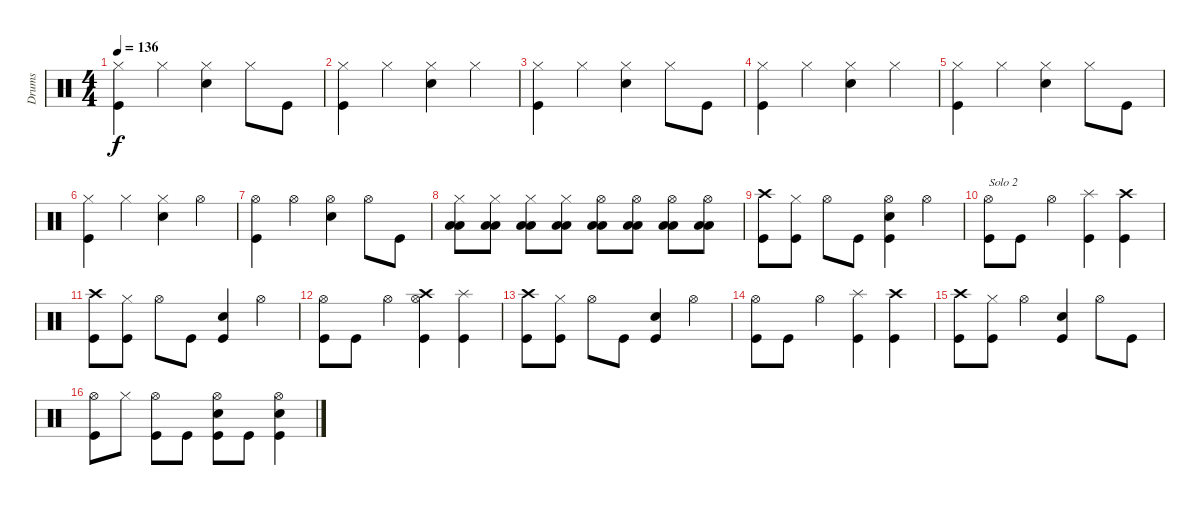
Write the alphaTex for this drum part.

\track ("Drums" "Drums") {instrument percussion}
\staff {score}
\articulation defaults
\ts (4 4)
\tempo 136
\clef neutral
\ks c
("Hi-Hat (closed)" "Kick (hit)").4{dy f} "Hi-Hat (closed)".4 ("Hi-Hat (closed)" "Snare (hit) 2").4 "Hi-Hat (closed)".8 "Kick (hit)".8 |
("Hi-Hat (closed)" "Kick (hit)").4 "Hi-Hat (closed)".4 ("Hi-Hat (closed)" "Snare (hit) 2").4 "Hi-Hat (closed)".4 |
("Hi-Hat (closed)" "Kick (hit)").4 "Hi-Hat (closed)".4 ("Hi-Hat (closed)" "Snare (hit) 2").4 "Hi-Hat (closed)".8 "Kick (hit)".8 |
("Hi-Hat (closed)" "Kick (hit)").4 "Hi-Hat (closed)".4 ("Hi-Hat (closed)" "Snare (hit) 2").4 "Hi-Hat (closed)".4 |
("Hi-Hat (closed)" "Kick (hit)").4 "Hi-Hat (closed)".4 ("Hi-Hat (closed)" "Snare (hit) 2").4 "Hi-Hat (closed)".8 "Kick (hit)".8 |
("Hi-Hat (closed)" "Kick (hit)").4 "Hi-Hat (closed)".4 ("Hi-Hat (closed)" "Snare (hit) 2").4 "Hi-Hat (open)".4 |
("Hi-Hat (open)" "Kick (hit)").4 "Hi-Hat (open)".4 ("Hi-Hat (open)" "Snare (hit) 2").4 "Hi-Hat (open)".8 "Kick (hit)".8 |
("Hi-Hat (closed)" "Low Floor Tom (hit)" "Low Floor Tom (hit)").8 ("Hi-Hat (closed)" "Low Floor Tom (hit)" "Low Floor Tom (hit)").8 ("Hi-Hat (closed)" "Low Floor Tom (hit)" "Low Floor Tom (hit)").8 ("Hi-Hat (closed)" "Low Floor Tom (hit)" "Low Floor Tom (hit)").8 ("Hi-Hat (open)" "Low Floor Tom (hit)" "Low Floor Tom (hit)").8 ("Hi-Hat (open)" "Low Floor Tom (hit)" "Low Floor Tom (hit)").8 ("Hi-Hat (open)" "Low Floor Tom (hit)" "Low Floor Tom (hit)").8 ("Hi-Hat (open)" "Low Floor Tom (hit)" "Low Floor Tom (hit)").8 |
("Crash high (hit)" "Kick (hit)").8 ("Hi-Hat (closed)" "Kick (hit)").8 "Hi-Hat (open)".8 "Kick (hit)".8 ("Hi-Hat (open)" "Snare (hit) 2" "Kick (hit)").4 "Hi-Hat (open)".4 |
("Hi-Hat (open)" "Kick (hit)").8{txt "Solo 2"} "Kick (hit)".8 "Hi-Hat (open)".4 ("Splash (hit)" "Kick (hit)").4 ("Crash high (hit)" "Kick (hit)").4 |
("Crash high (hit)" "Kick (hit)").8 ("Hi-Hat (closed)" "Kick (hit)").8 "Hi-Hat (open)".8 "Kick (hit)".8 ("Snare (hit) 2" "Kick (hit)").4 "Hi-Hat (open)".4 |
("Hi-Hat (open)" "Kick (hit)").8 "Kick (hit)".8 "Hi-Hat (open)".4 ("Crash high (hit)" "Hi-Hat (open)" "Kick (hit)").4 ("Splash (hit)" "Kick (hit)").4 |
("Crash high (hit)" "Kick (hit)").8 ("Hi-Hat (closed)" "Kick (hit)").8 "Hi-Hat (open)".8 "Kick (hit)".8 ("Snare (hit) 2" "Kick (hit)").4 "Hi-Hat (open)".4 |
("Hi-Hat (open)" "Kick (hit)").8 "Kick (hit)".8 "Hi-Hat (open)".4 ("Splash (hit)" "Kick (hit)").4 ("Crash high (hit)" "Kick (hit)").4 |
("Crash high (hit)" "Kick (hit)").8 ("Hi-Hat (closed)" "Kick (hit)").8 "Hi-Hat (open)".4 ("Snare (hit) 2" "Kick (hit)").4 "Hi-Hat (open)".8 "Kick (hit)".8 |
("Hi-Hat (open)" "Kick (hit)").8 "Hi-Hat (closed)".8 ("Hi-Hat (open)" "Kick (hit)").8 "Kick (hit)".8 ("Hi-Hat (open)" "Snare (hit) 2" "Kick (hit)").8 "Kick (hit)".8 ("Hi-Hat (open)" "Snare (hit) 2" "Kick (hit)").4
